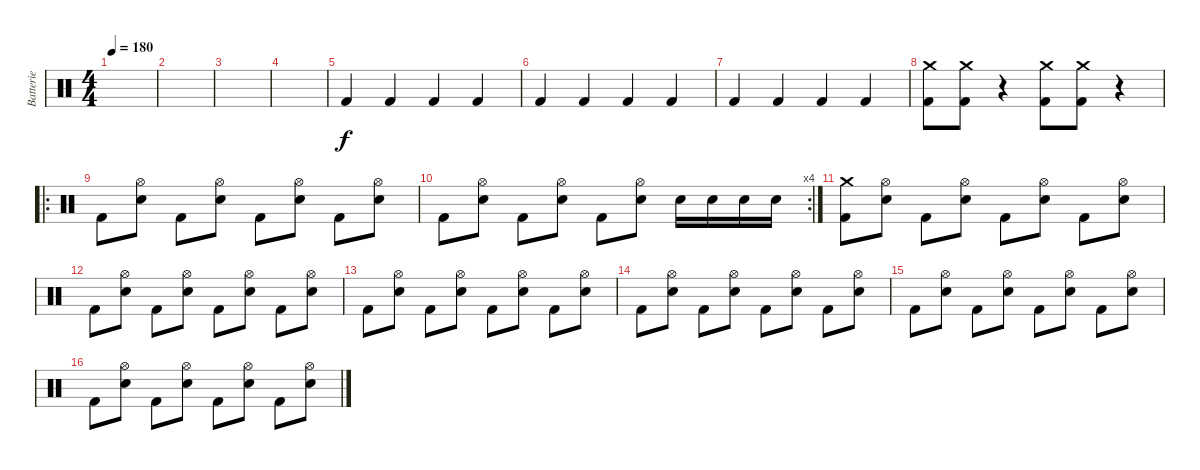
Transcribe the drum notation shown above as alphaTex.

\track ("Batterie" "Batterie") {instrument percussion}
\staff {score}
\articulation defaults
\ts (4 4)
\tempo 180
\clef neutral
\ks c
|
|
|
|
"Kick (hit) 2".4 "Kick (hit) 2".4 "Kick (hit) 2".4 "Kick (hit) 2".4 |
"Kick (hit) 2".4 "Kick (hit) 2".4 "Kick (hit) 2".4 "Kick (hit) 2".4 |
"Kick (hit) 2".4 "Kick (hit) 2".4 "Kick (hit) 2".4 "Kick (hit) 2".4 |
("Kick (hit) 2" "Crash medium (hit)").8 ("Kick (hit) 2" "Crash medium (hit)").8 r.4 ("Kick (hit) 2" "Crash medium (hit)").8 ("Kick (hit) 2" "Crash medium (hit)").8 r.4 |
\ro "Kick (hit) 2".8
("Electric Snare (hit)" "Hi-Hat (open)").8 "Kick (hit) 2".8 ("Electric Snare (hit)" "Hi-Hat (open)").8 "Kick (hit) 2".8 ("Electric Snare (hit)" "Hi-Hat (open)").8 "Kick (hit) 2".8 ("Electric Snare (hit)" "Hi-Hat (open)").8 |
\rc 4 "Kick (hit) 2".8
("Electric Snare (hit)" "Hi-Hat (open)").8 "Kick (hit) 2".8 ("Electric Snare (hit)" "Hi-Hat (open)").8 "Kick (hit) 2".8 ("Electric Snare (hit)" "Hi-Hat (open)").8 "Electric Snare (hit)".16 "Electric Snare (hit)".16 "Electric Snare (hit)".16 "Electric Snare (hit)".16 |
("Kick (hit) 2" "Crash medium (hit)").8 ("Electric Snare (hit)" "Hi-Hat (open)").8 "Kick (hit) 2".8 ("Electric Snare (hit)" "Hi-Hat (open)").8 "Kick (hit) 2".8 ("Electric Snare (hit)" "Hi-Hat (open)").8 "Kick (hit) 2".8 ("Electric Snare (hit)" "Hi-Hat (open)").8 |
"Kick (hit) 2".8 ("Electric Snare (hit)" "Hi-Hat (open)").8 "Kick (hit) 2".8 ("Electric Snare (hit)" "Hi-Hat (open)").8 "Kick (hit) 2".8 ("Electric Snare (hit)" "Hi-Hat (open)").8 "Kick (hit) 2".8 ("Electric Snare (hit)" "Hi-Hat (open)").8 |
"Kick (hit) 2".8 ("Electric Snare (hit)" "Hi-Hat (open)").8 "Kick (hit) 2".8 ("Electric Snare (hit)" "Hi-Hat (open)").8 "Kick (hit) 2".8 ("Electric Snare (hit)" "Hi-Hat (open)").8 "Kick (hit) 2".8 ("Electric Snare (hit)" "Hi-Hat (open)").8 |
"Kick (hit) 2".8 ("Electric Snare (hit)" "Hi-Hat (open)").8 "Kick (hit) 2".8 ("Electric Snare (hit)" "Hi-Hat (open)").8 "Kick (hit) 2".8 ("Electric Snare (hit)" "Hi-Hat (open)").8 "Kick (hit) 2".8 ("Electric Snare (hit)" "Hi-Hat (open)").8 |
"Kick (hit) 2".8 ("Electric Snare (hit)" "Hi-Hat (open)").8 "Kick (hit) 2".8 ("Electric Snare (hit)" "Hi-Hat (open)").8 "Kick (hit) 2".8 ("Electric Snare (hit)" "Hi-Hat (open)").8 "Kick (hit) 2".8 ("Electric Snare (hit)" "Hi-Hat (open)").8 |
"Kick (hit) 2".8 ("Electric Snare (hit)" "Hi-Hat (open)").8 "Kick (hit) 2".8 ("Electric Snare (hit)" "Hi-Hat (open)").8 "Kick (hit) 2".8 ("Electric Snare (hit)" "Hi-Hat (open)").8 "Kick (hit) 2".8 ("Electric Snare (hit)" "Hi-Hat (open)").8
